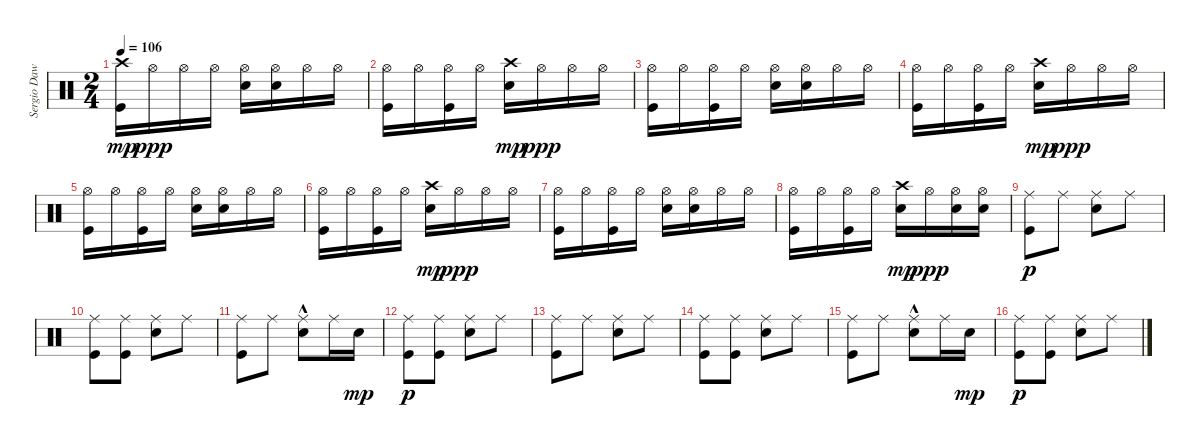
\track ("Sergio Dawi" "Sergio Daw") {instrument percussion}
\staff {score}
\articulation defaults
\ts (2 4)
\tempo 106
\clef neutral
\ks c
("Kick (hit)" "Crash high (hit)").16{dy mp} "Hi-Hat (open)".16{dy ppp} "Hi-Hat (open)".16 "Hi-Hat (open)".16 ("Electric Snare (hit)" "Hi-Hat (open)").16 ("Electric Snare (hit)" "Hi-Hat (open)").16 "Hi-Hat (open)".16 "Hi-Hat (open)".16 |
("Kick (hit)" "Hi-Hat (open)").16 "Hi-Hat (open)".16 ("Kick (hit)" "Hi-Hat (open)").16 "Hi-Hat (open)".16 ("Electric Snare (hit)" "Crash high (hit)").16{dy mp} "Hi-Hat (open)".16{dy ppp} "Hi-Hat (open)".16 "Hi-Hat (open)".16 |
("Kick (hit)" "Hi-Hat (open)").16 "Hi-Hat (open)".16 ("Kick (hit)" "Hi-Hat (open)").16 "Hi-Hat (open)".16 ("Electric Snare (hit)" "Hi-Hat (open)").16 ("Electric Snare (hit)" "Hi-Hat (open)").16 "Hi-Hat (open)".16 "Hi-Hat (open)".16 |
("Kick (hit)" "Hi-Hat (open)").16 "Hi-Hat (open)".16 ("Kick (hit)" "Hi-Hat (open)").16 "Hi-Hat (open)".16 ("Electric Snare (hit)" "Crash high (hit)").16{dy mp} "Hi-Hat (open)".16{dy ppp} "Hi-Hat (open)".16 "Hi-Hat (open)".16 |
("Kick (hit)" "Hi-Hat (open)").16 "Hi-Hat (open)".16 ("Kick (hit)" "Hi-Hat (open)").16 "Hi-Hat (open)".16 ("Electric Snare (hit)" "Hi-Hat (open)").16 ("Electric Snare (hit)" "Hi-Hat (open)").16 "Hi-Hat (open)".16 "Hi-Hat (open)".16 |
("Kick (hit)" "Hi-Hat (open)").16 "Hi-Hat (open)".16 ("Kick (hit)" "Hi-Hat (open)").16 "Hi-Hat (open)".16 ("Electric Snare (hit)" "Crash high (hit)").16{dy mp} "Hi-Hat (open)".16{dy ppp} "Hi-Hat (open)".16 "Hi-Hat (open)".16 |
("Kick (hit)" "Hi-Hat (open)").16 "Hi-Hat (open)".16 ("Kick (hit)" "Hi-Hat (open)").16 "Hi-Hat (open)".16 ("Electric Snare (hit)" "Hi-Hat (open)").16 ("Electric Snare (hit)" "Hi-Hat (open)").16 "Hi-Hat (open)".16 "Hi-Hat (open)".16 |
("Kick (hit)" "Hi-Hat (open)").16 "Hi-Hat (open)".16 ("Kick (hit)" "Hi-Hat (open)").16 "Hi-Hat (open)".16 ("Electric Snare (hit)" "Crash high (hit)").16{dy mp} "Hi-Hat (open)".16{dy ppp} ("Electric Snare (hit)" "Hi-Hat (open)").16 ("Electric Snare (hit)" "Hi-Hat (open)").16 |
("Kick (hit)" "Ride (middle)").8{dy p} "Ride (middle)".8 ("Electric Snare (hit)" "Ride (middle)").8 "Ride (middle)".8 |
("Kick (hit)" "Ride (middle)").8 ("Kick (hit)" "Ride (middle)").8 ("Electric Snare (hit)" "Ride (middle)").8 "Ride (middle)".8 |
("Kick (hit)" "Ride (middle)").8 "Ride (middle)".8 ("Electric Snare (hit)"{hac} "Ride (middle)").8 "Ride (middle)".16 "Electric Snare (hit)".16{dy mp} |
("Kick (hit)" "Ride (middle)").8{dy p} ("Kick (hit)" "Ride (middle)").8 ("Electric Snare (hit)" "Ride (middle)").8 "Ride (middle)".8 |
("Kick (hit)" "Ride (middle)").8 "Ride (middle)".8 ("Electric Snare (hit)" "Ride (middle)").8 "Ride (middle)".8 |
("Kick (hit)" "Ride (middle)").8 ("Kick (hit)" "Ride (middle)").8 ("Electric Snare (hit)" "Ride (middle)").8 "Ride (middle)".8 |
("Kick (hit)" "Ride (middle)").8 "Ride (middle)".8 ("Electric Snare (hit)"{hac} "Ride (middle)").8 "Ride (middle)".16 "Electric Snare (hit)".16{dy mp} |
("Kick (hit)" "Ride (middle)").8{dy p} ("Kick (hit)" "Ride (middle)").8 ("Electric Snare (hit)" "Ride (middle)").8 "Ride (middle)".8
